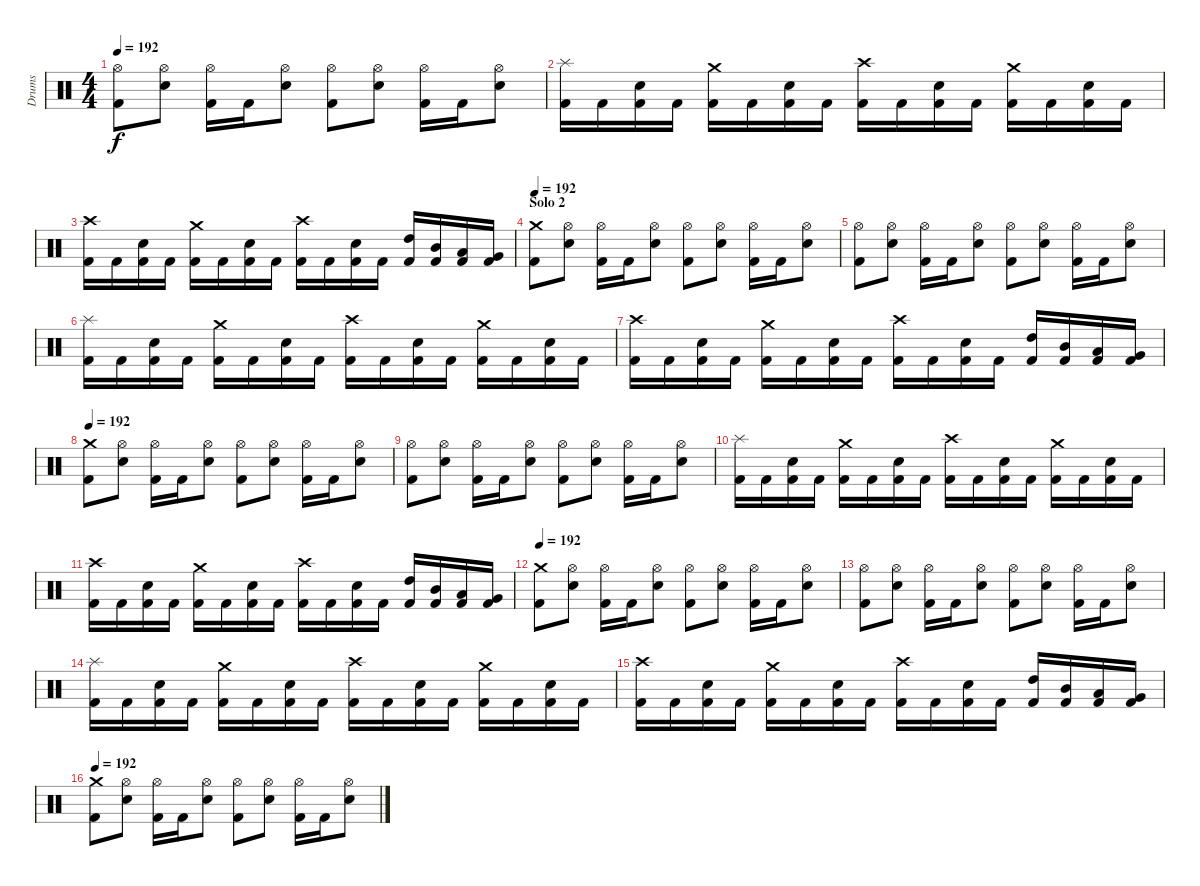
\track ("Drums" "Drums") {instrument percussion}
\staff {score}
\articulation defaults
\ts (4 4)
\tempo 192
\clef neutral
\ks c
("Kick (hit) 2" "Hi-Hat (open)").8{dy f} ("Snare (hit) 2" "Hi-Hat (open)").8 ("Kick (hit) 2" "Hi-Hat (open)").16 "Kick (hit) 2".16 ("Snare (hit) 2" "Hi-Hat (open)").8 ("Kick (hit) 2" "Hi-Hat (open)").8 ("Snare (hit) 2" "Hi-Hat (open)").8 ("Kick (hit) 2" "Hi-Hat (open)").16 "Kick (hit) 2".16 ("Snare (hit) 2" "Hi-Hat (open)").8 |
("Kick (hit) 2" "Splash (hit)").16 "Kick (hit) 2".16 ("Kick (hit) 2" "Snare (hit) 2").16 "Kick (hit) 2".16 ("Kick (hit) 2" "Crash medium (hit)").16 "Kick (hit) 2".16 ("Kick (hit) 2" "Snare (hit) 2").16 "Kick (hit) 2".16 ("Kick (hit) 2" "Crash high (hit)").16 "Kick (hit) 2".16 ("Kick (hit) 2" "Snare (hit) 2").16 "Kick (hit) 2".16 ("Kick (hit) 2" "Crash medium (hit)").16 "Kick (hit) 2".16 ("Kick (hit) 2" "Snare (hit) 2").16 "Kick (hit) 2".16 |
("Kick (hit) 2" "Crash high (hit)").16 "Kick (hit) 2".16 ("Kick (hit) 2" "Snare (hit) 2").16 "Kick (hit) 2".16 ("Kick (hit) 2" "Crash medium (hit)").16 "Kick (hit) 2".16 ("Kick (hit) 2" "Snare (hit) 2").16 "Kick (hit) 2".16 ("Kick (hit) 2" "Crash high (hit)").16 "Kick (hit) 2".16 ("Kick (hit) 2" "Snare (hit) 2").16 "Kick (hit) 2".16 ("Kick (hit) 2" "High Tom (hit)").16 ("Kick (hit) 2" "Mid Tom (hit)").16 ("Kick (hit) 2" "Low Tom (hit)").16 ("Kick (hit) 2" "Very Low Tom (hit)").16 |
\section ("" "Solo 2")
\tempo 192
("Kick (hit) 2" "Crash medium (hit)").8 ("Snare (hit) 2" "Hi-Hat (open)").8 ("Kick (hit) 2" "Hi-Hat (open)").16 "Kick (hit) 2".16 ("Snare (hit) 2" "Hi-Hat (open)").8 ("Kick (hit) 2" "Hi-Hat (open)").8 ("Snare (hit) 2" "Hi-Hat (open)").8 ("Kick (hit) 2" "Hi-Hat (open)").16 "Kick (hit) 2".16 ("Snare (hit) 2" "Hi-Hat (open)").8 |
("Kick (hit) 2" "Hi-Hat (open)").8 ("Snare (hit) 2" "Hi-Hat (open)").8 ("Kick (hit) 2" "Hi-Hat (open)").16 "Kick (hit) 2".16 ("Snare (hit) 2" "Hi-Hat (open)").8 ("Kick (hit) 2" "Hi-Hat (open)").8 ("Snare (hit) 2" "Hi-Hat (open)").8 ("Kick (hit) 2" "Hi-Hat (open)").16 "Kick (hit) 2".16 ("Snare (hit) 2" "Hi-Hat (open)").8 |
("Kick (hit) 2" "Splash (hit)").16 "Kick (hit) 2".16 ("Kick (hit) 2" "Snare (hit) 2").16 "Kick (hit) 2".16 ("Kick (hit) 2" "Crash medium (hit)").16 "Kick (hit) 2".16 ("Kick (hit) 2" "Snare (hit) 2").16 "Kick (hit) 2".16 ("Kick (hit) 2" "Crash high (hit)").16 "Kick (hit) 2".16 ("Kick (hit) 2" "Snare (hit) 2").16 "Kick (hit) 2".16 ("Kick (hit) 2" "Crash medium (hit)").16 "Kick (hit) 2".16 ("Kick (hit) 2" "Snare (hit) 2").16 "Kick (hit) 2".16 |
("Kick (hit) 2" "Crash high (hit)").16 "Kick (hit) 2".16 ("Kick (hit) 2" "Snare (hit) 2").16 "Kick (hit) 2".16 ("Kick (hit) 2" "Crash medium (hit)").16 "Kick (hit) 2".16 ("Kick (hit) 2" "Snare (hit) 2").16 "Kick (hit) 2".16 ("Kick (hit) 2" "Crash high (hit)").16 "Kick (hit) 2".16 ("Kick (hit) 2" "Snare (hit) 2").16 "Kick (hit) 2".16 ("Kick (hit) 2" "High Tom (hit)").16 ("Kick (hit) 2" "Mid Tom (hit)").16 ("Kick (hit) 2" "Low Tom (hit)").16 ("Kick (hit) 2" "Very Low Tom (hit)").16 |
\section ("" "")
\tempo 192
("Kick (hit) 2" "Crash medium (hit)").8 ("Snare (hit) 2" "Hi-Hat (open)").8 ("Kick (hit) 2" "Hi-Hat (open)").16 "Kick (hit) 2".16 ("Snare (hit) 2" "Hi-Hat (open)").8 ("Kick (hit) 2" "Hi-Hat (open)").8 ("Snare (hit) 2" "Hi-Hat (open)").8 ("Kick (hit) 2" "Hi-Hat (open)").16 "Kick (hit) 2".16 ("Snare (hit) 2" "Hi-Hat (open)").8 |
("Kick (hit) 2" "Hi-Hat (open)").8 ("Snare (hit) 2" "Hi-Hat (open)").8 ("Kick (hit) 2" "Hi-Hat (open)").16 "Kick (hit) 2".16 ("Snare (hit) 2" "Hi-Hat (open)").8 ("Kick (hit) 2" "Hi-Hat (open)").8 ("Snare (hit) 2" "Hi-Hat (open)").8 ("Kick (hit) 2" "Hi-Hat (open)").16 "Kick (hit) 2".16 ("Snare (hit) 2" "Hi-Hat (open)").8 |
("Kick (hit) 2" "Splash (hit)").16 "Kick (hit) 2".16 ("Kick (hit) 2" "Snare (hit) 2").16 "Kick (hit) 2".16 ("Kick (hit) 2" "Crash medium (hit)").16 "Kick (hit) 2".16 ("Kick (hit) 2" "Snare (hit) 2").16 "Kick (hit) 2".16 ("Kick (hit) 2" "Crash high (hit)").16 "Kick (hit) 2".16 ("Kick (hit) 2" "Snare (hit) 2").16 "Kick (hit) 2".16 ("Kick (hit) 2" "Crash medium (hit)").16 "Kick (hit) 2".16 ("Kick (hit) 2" "Snare (hit) 2").16 "Kick (hit) 2".16 |
("Kick (hit) 2" "Crash high (hit)").16 "Kick (hit) 2".16 ("Kick (hit) 2" "Snare (hit) 2").16 "Kick (hit) 2".16 ("Kick (hit) 2" "Crash medium (hit)").16 "Kick (hit) 2".16 ("Kick (hit) 2" "Snare (hit) 2").16 "Kick (hit) 2".16 ("Kick (hit) 2" "Crash high (hit)").16 "Kick (hit) 2".16 ("Kick (hit) 2" "Snare (hit) 2").16 "Kick (hit) 2".16 ("Kick (hit) 2" "High Tom (hit)").16 ("Kick (hit) 2" "Mid Tom (hit)").16 ("Kick (hit) 2" "Low Tom (hit)").16 ("Kick (hit) 2" "Very Low Tom (hit)").16 |
\section ("" "")
\tempo 192
("Kick (hit) 2" "Crash medium (hit)").8 ("Snare (hit) 2" "Hi-Hat (open)").8 ("Kick (hit) 2" "Hi-Hat (open)").16 "Kick (hit) 2".16 ("Snare (hit) 2" "Hi-Hat (open)").8 ("Kick (hit) 2" "Hi-Hat (open)").8 ("Snare (hit) 2" "Hi-Hat (open)").8 ("Kick (hit) 2" "Hi-Hat (open)").16 "Kick (hit) 2".16 ("Snare (hit) 2" "Hi-Hat (open)").8 |
("Kick (hit) 2" "Hi-Hat (open)").8 ("Snare (hit) 2" "Hi-Hat (open)").8 ("Kick (hit) 2" "Hi-Hat (open)").16 "Kick (hit) 2".16 ("Snare (hit) 2" "Hi-Hat (open)").8 ("Kick (hit) 2" "Hi-Hat (open)").8 ("Snare (hit) 2" "Hi-Hat (open)").8 ("Kick (hit) 2" "Hi-Hat (open)").16 "Kick (hit) 2".16 ("Snare (hit) 2" "Hi-Hat (open)").8 |
("Kick (hit) 2" "Splash (hit)").16 "Kick (hit) 2".16 ("Kick (hit) 2" "Snare (hit) 2").16 "Kick (hit) 2".16 ("Kick (hit) 2" "Crash medium (hit)").16 "Kick (hit) 2".16 ("Kick (hit) 2" "Snare (hit) 2").16 "Kick (hit) 2".16 ("Kick (hit) 2" "Crash high (hit)").16 "Kick (hit) 2".16 ("Kick (hit) 2" "Snare (hit) 2").16 "Kick (hit) 2".16 ("Kick (hit) 2" "Crash medium (hit)").16 "Kick (hit) 2".16 ("Kick (hit) 2" "Snare (hit) 2").16 "Kick (hit) 2".16 |
("Kick (hit) 2" "Crash high (hit)").16 "Kick (hit) 2".16 ("Kick (hit) 2" "Snare (hit) 2").16 "Kick (hit) 2".16 ("Kick (hit) 2" "Crash medium (hit)").16 "Kick (hit) 2".16 ("Kick (hit) 2" "Snare (hit) 2").16 "Kick (hit) 2".16 ("Kick (hit) 2" "Crash high (hit)").16 "Kick (hit) 2".16 ("Kick (hit) 2" "Snare (hit) 2").16 "Kick (hit) 2".16 ("Kick (hit) 2" "High Tom (hit)").16 ("Kick (hit) 2" "Mid Tom (hit)").16 ("Kick (hit) 2" "Low Tom (hit)").16 ("Kick (hit) 2" "Very Low Tom (hit)").16 |
\tempo 192
("Kick (hit) 2" "Crash medium (hit)").8 ("Snare (hit) 2" "Hi-Hat (open)").8 ("Kick (hit) 2" "Hi-Hat (open)").16 "Kick (hit) 2".16 ("Snare (hit) 2" "Hi-Hat (open)").8 ("Kick (hit) 2" "Hi-Hat (open)").8 ("Snare (hit) 2" "Hi-Hat (open)").8 ("Kick (hit) 2" "Hi-Hat (open)").16 "Kick (hit) 2".16 ("Snare (hit) 2" "Hi-Hat (open)").8
